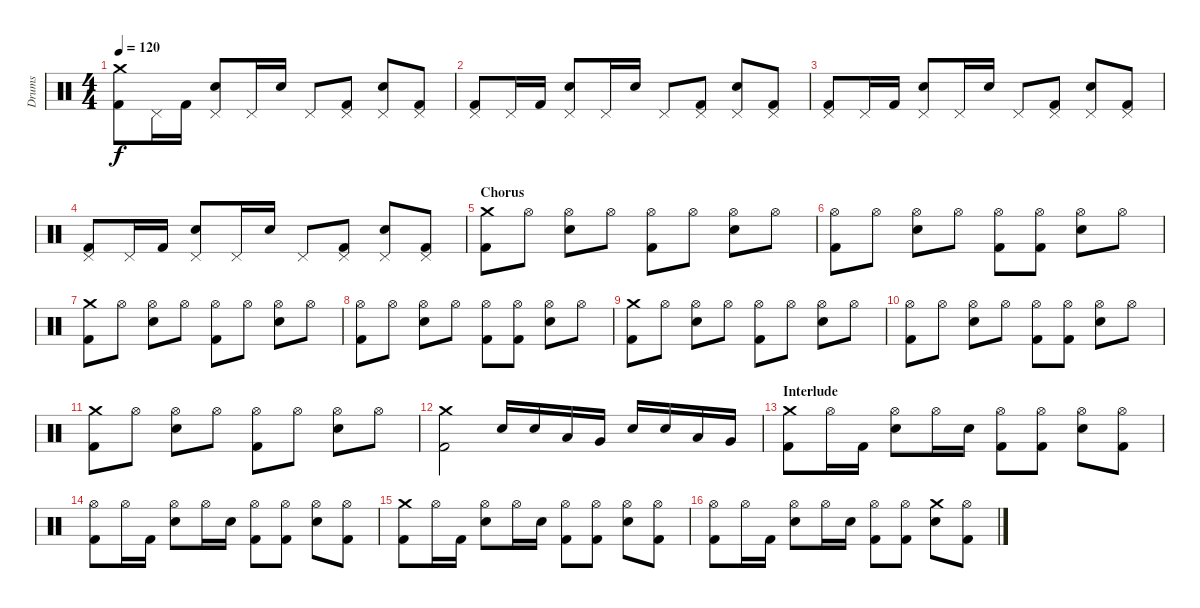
\track ("Drums" "Drums") {instrument percussion}
\staff {score}
\articulation defaults
\ts (4 4)
\tempo 120
\clef neutral
\ks c
("Crash medium (hit)" "Kick (hit) 2").8{dy f} "Pedal Hi-Hat (hit)".16 "Kick (hit) 2".16 ("Pedal Hi-Hat (hit)" "Electric Snare (hit)").8 "Pedal Hi-Hat (hit)".16 "Electric Snare (hit)".16 "Pedal Hi-Hat (hit)".8 ("Pedal Hi-Hat (hit)" "Kick (hit) 2").8 ("Pedal Hi-Hat (hit)" "Electric Snare (hit)").8 ("Pedal Hi-Hat (hit)" "Kick (hit) 2").8 |
("Pedal Hi-Hat (hit)" "Kick (hit) 2").8 "Pedal Hi-Hat (hit)".16 "Kick (hit) 2".16 ("Pedal Hi-Hat (hit)" "Electric Snare (hit)").8 "Pedal Hi-Hat (hit)".16 "Electric Snare (hit)".16 "Pedal Hi-Hat (hit)".8 ("Pedal Hi-Hat (hit)" "Kick (hit) 2").8 ("Pedal Hi-Hat (hit)" "Electric Snare (hit)").8 ("Pedal Hi-Hat (hit)" "Kick (hit) 2").8 |
("Pedal Hi-Hat (hit)" "Kick (hit) 2").8 "Pedal Hi-Hat (hit)".16 "Kick (hit) 2".16 ("Pedal Hi-Hat (hit)" "Electric Snare (hit)").8 "Pedal Hi-Hat (hit)".16 "Electric Snare (hit)".16 "Pedal Hi-Hat (hit)".8 ("Pedal Hi-Hat (hit)" "Kick (hit) 2").8 ("Pedal Hi-Hat (hit)" "Electric Snare (hit)").8 ("Pedal Hi-Hat (hit)" "Kick (hit) 2").8 |
("Pedal Hi-Hat (hit)" "Kick (hit) 2").8 "Pedal Hi-Hat (hit)".16 "Kick (hit) 2".16 ("Pedal Hi-Hat (hit)" "Electric Snare (hit)").8 "Pedal Hi-Hat (hit)".16 "Electric Snare (hit)".16 "Pedal Hi-Hat (hit)".8 ("Pedal Hi-Hat (hit)" "Kick (hit) 2").8 ("Pedal Hi-Hat (hit)" "Electric Snare (hit)").8 ("Pedal Hi-Hat (hit)" "Kick (hit) 2").8 |
\section ("" "Chorus")
("Crash medium (hit)" "Kick (hit) 2").8 "Hi-Hat (open)".8 ("Hi-Hat (open)" "Electric Snare (hit)").8 "Hi-Hat (open)".8 ("Hi-Hat (open)" "Kick (hit) 2").8 "Hi-Hat (open)".8 ("Hi-Hat (open)" "Electric Snare (hit)").8 "Hi-Hat (open)".8 |
("Hi-Hat (open)" "Kick (hit) 2").8 "Hi-Hat (open)".8 ("Hi-Hat (open)" "Electric Snare (hit)").8 "Hi-Hat (open)".8 ("Hi-Hat (open)" "Kick (hit) 2").8 ("Hi-Hat (open)" "Kick (hit) 2").8 ("Hi-Hat (open)" "Electric Snare (hit)").8 "Hi-Hat (open)".8 |
("Crash medium (hit)" "Kick (hit) 2").8 "Hi-Hat (open)".8 ("Hi-Hat (open)" "Electric Snare (hit)").8 "Hi-Hat (open)".8 ("Hi-Hat (open)" "Kick (hit) 2").8 "Hi-Hat (open)".8 ("Hi-Hat (open)" "Electric Snare (hit)").8 "Hi-Hat (open)".8 |
("Hi-Hat (open)" "Kick (hit) 2").8 "Hi-Hat (open)".8 ("Hi-Hat (open)" "Electric Snare (hit)").8 "Hi-Hat (open)".8 ("Hi-Hat (open)" "Kick (hit) 2").8 ("Hi-Hat (open)" "Kick (hit) 2").8 ("Hi-Hat (open)" "Electric Snare (hit)").8 "Hi-Hat (open)".8 |
("Crash medium (hit)" "Kick (hit) 2").8 "Hi-Hat (open)".8 ("Hi-Hat (open)" "Electric Snare (hit)").8 "Hi-Hat (open)".8 ("Hi-Hat (open)" "Kick (hit) 2").8 "Hi-Hat (open)".8 ("Hi-Hat (open)" "Electric Snare (hit)").8 "Hi-Hat (open)".8 |
("Hi-Hat (open)" "Kick (hit) 2").8 "Hi-Hat (open)".8 ("Hi-Hat (open)" "Electric Snare (hit)").8 "Hi-Hat (open)".8 ("Hi-Hat (open)" "Kick (hit) 2").8 ("Hi-Hat (open)" "Kick (hit) 2").8 ("Hi-Hat (open)" "Electric Snare (hit)").8 "Hi-Hat (open)".8 |
("Crash medium (hit)" "Kick (hit) 2").8 "Hi-Hat (open)".8 ("Hi-Hat (open)" "Electric Snare (hit)").8 "Hi-Hat (open)".8 ("Hi-Hat (open)" "Kick (hit) 2").8 "Hi-Hat (open)".8 ("Hi-Hat (open)" "Electric Snare (hit)").8 "Hi-Hat (open)".8 |
("Crash medium (hit)" "Kick (hit) 2").2 "Electric Snare (hit)".16 "Electric Snare (hit)".16 "Low Tom (hit)".16 "Very Low Tom (hit)".16 "Electric Snare (hit)".16 "Electric Snare (hit)".16 "Low Tom (hit)".16 "Very Low Tom (hit)".16 |
\section ("" "Interlude")
("Crash medium (hit)" "Kick (hit) 2").8 "Hi-Hat (open)".16 "Kick (hit) 2".16 ("Hi-Hat (open)" "Electric Snare (hit)").8 "Hi-Hat (open)".16 "Electric Snare (hit)".16 ("Hi-Hat (open)" "Kick (hit) 2").8 ("Hi-Hat (open)" "Kick (hit) 2").8 ("Hi-Hat (open)" "Electric Snare (hit)").8 ("Hi-Hat (open)" "Kick (hit) 2").8 |
("Hi-Hat (open)" "Kick (hit) 2").8 "Hi-Hat (open)".16 "Kick (hit) 2".16 ("Hi-Hat (open)" "Electric Snare (hit)").8 "Hi-Hat (open)".16 "Electric Snare (hit)".16 ("Hi-Hat (open)" "Kick (hit) 2").8 ("Hi-Hat (open)" "Kick (hit) 2").8 ("Hi-Hat (open)" "Electric Snare (hit)").8 ("Hi-Hat (open)" "Kick (hit) 2").8 |
("Crash medium (hit)" "Kick (hit) 2").8 "Hi-Hat (open)".16 "Kick (hit) 2".16 ("Hi-Hat (open)" "Electric Snare (hit)").8 "Hi-Hat (open)".16 "Electric Snare (hit)".16 ("Hi-Hat (open)" "Kick (hit) 2").8 ("Hi-Hat (open)" "Kick (hit) 2").8 ("Hi-Hat (open)" "Electric Snare (hit)").8 ("Hi-Hat (open)" "Kick (hit) 2").8 |
("Hi-Hat (open)" "Kick (hit) 2").8 "Hi-Hat (open)".16 "Kick (hit) 2".16 ("Hi-Hat (open)" "Electric Snare (hit)").8 "Hi-Hat (open)".16 "Electric Snare (hit)".16 ("Hi-Hat (open)" "Kick (hit) 2").8 ("Hi-Hat (open)" "Kick (hit) 2").8 ("Crash medium (hit)" "Electric Snare (hit)").8 ("Hi-Hat (open)" "Kick (hit) 2").8
